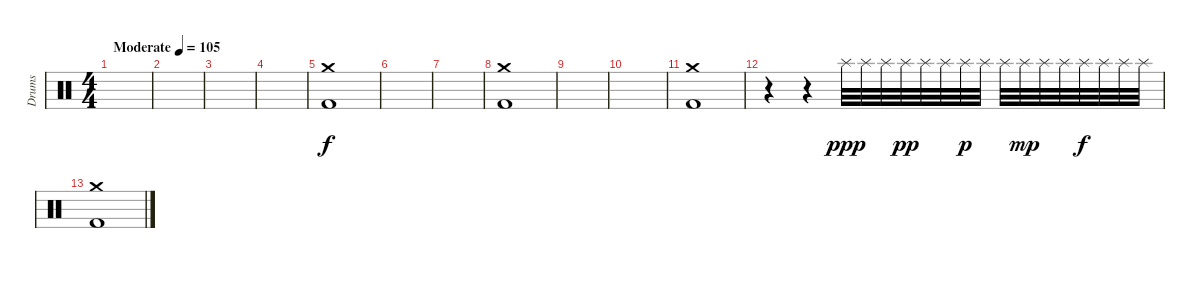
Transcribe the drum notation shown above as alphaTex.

\track ("Drums" "Drums") {instrument percussion}
\staff {score}
\articulation defaults
\ts (4 4)
\tempo (105 "Moderate")
\clef neutral
\ks c
|
|
|
|
("Crash medium (hit)" "Kick (hit) 2").1 |
|
|
("Crash medium (hit)" "Kick (hit) 2").1 |
|
|
("Crash medium (hit)" "Kick (hit) 2").1 |
r.4 r.4 "Splash (hit)".32{dy ppp} "Splash (hit)".32 "Splash (hit)".32 "Splash (hit)".32{dy pp} "Splash (hit)".32 "Splash (hit)".32 "Splash (hit)".32{dy p} "Splash (hit)".32 "Splash (hit)".32 "Splash (hit)".32{dy mp} "Splash (hit)".32 "Splash (hit)".32 "Splash (hit)".32{dy f} "Splash (hit)".32 "Splash (hit)".32 "Splash (hit)".32 |
("Crash medium (hit)" "Kick (hit) 2").1
